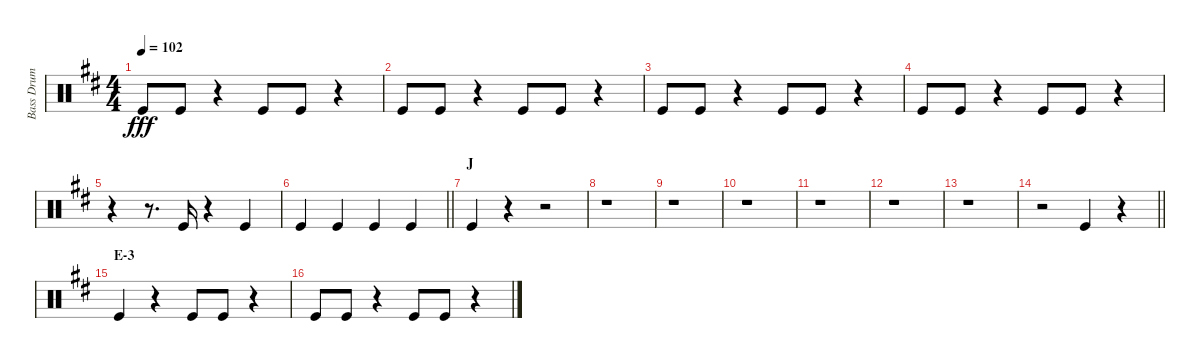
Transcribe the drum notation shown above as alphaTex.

\track ("Bass Drum" "Bass Drum") {instrument percussion}
\staff {score}
\articulation defaults
\ts (4 4)
\tempo 102
\clef neutral
\ks d "Kick (hit)".8{dy fff} "Kick (hit)".8
r.4 "Kick (hit)".8 "Kick (hit)".8 r.4 |
"Kick (hit)".8 "Kick (hit)".8 r.4 "Kick (hit)".8 "Kick (hit)".8 r.4 |
"Kick (hit)".8 "Kick (hit)".8 r.4 "Kick (hit)".8 "Kick (hit)".8 r.4 |
"Kick (hit)".8 "Kick (hit)".8 r.4 "Kick (hit)".8 "Kick (hit)".8 r.4 |
r.4 r.8{d} "Kick (hit)".16 r.4 "Kick (hit)".4 |
\barLineRight lightlight "Kick (hit)".4 "Kick (hit)".4 "Kick (hit)".4 "Kick (hit)".4
|
\section ("" "J")
"Kick (hit)".4 r.4 r.2 |
r.1 |
r.1 |
r.1 |
r.1 |
r.1 |
r.1 |
\barLineRight lightlight
r.2 "Kick (hit)".4 r.4 |
\section ("" "E-3")
"Kick (hit)".4 r.4 "Kick (hit)".8 "Kick (hit)".8 r.4 |
"Kick (hit)".8 "Kick (hit)".8 r.4 "Kick (hit)".8 "Kick (hit)".8 r.4
